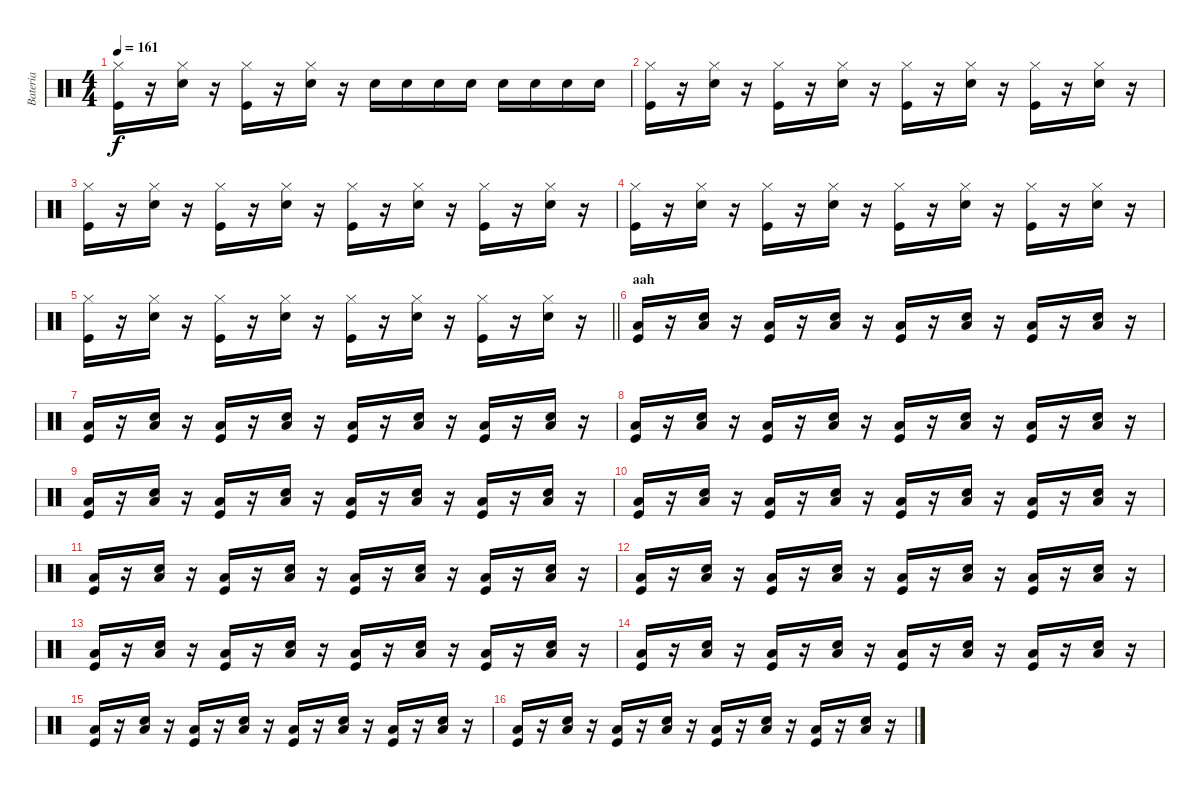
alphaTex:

\track ("Bateria" "Bateria") {instrument percussion}
\staff {score}
\articulation defaults
\ts (4 4)
\tempo 161
\clef neutral
\ks c
("Hi-Hat (closed)" "Kick (hit)").16{dy f} r.16 ("Hi-Hat (closed)" "Snare (hit) 2").16 r.16 ("Hi-Hat (closed)" "Kick (hit)").16 r.16 ("Hi-Hat (closed)" "Snare (hit) 2").16 r.16 "Snare (hit) 2".16 "Snare (hit) 2".16 "Snare (hit) 2".16 "Snare (hit) 2".16 "Snare (hit) 2".16 "Snare (hit) 2".16 "Snare (hit) 2".16 "Snare (hit) 2".16 |
("Hi-Hat (closed)" "Kick (hit)").16 r.16 ("Hi-Hat (closed)" "Snare (hit) 2").16 r.16 ("Hi-Hat (closed)" "Kick (hit)").16 r.16 ("Hi-Hat (closed)" "Snare (hit) 2").16 r.16 ("Hi-Hat (closed)" "Kick (hit)").16 r.16 ("Hi-Hat (closed)" "Snare (hit) 2").16 r.16 ("Hi-Hat (closed)" "Kick (hit)").16 r.16 ("Hi-Hat (closed)" "Snare (hit) 2").16 r.16 |
("Hi-Hat (closed)" "Kick (hit)").16 r.16 ("Hi-Hat (closed)" "Snare (hit) 2").16 r.16 ("Hi-Hat (closed)" "Kick (hit)").16 r.16 ("Hi-Hat (closed)" "Snare (hit) 2").16 r.16 ("Hi-Hat (closed)" "Kick (hit)").16 r.16 ("Hi-Hat (closed)" "Snare (hit) 2").16 r.16 ("Hi-Hat (closed)" "Kick (hit)").16 r.16 ("Hi-Hat (closed)" "Snare (hit) 2").16 r.16 |
("Hi-Hat (closed)" "Kick (hit)").16 r.16 ("Hi-Hat (closed)" "Snare (hit) 2").16 r.16 ("Hi-Hat (closed)" "Kick (hit)").16 r.16 ("Hi-Hat (closed)" "Snare (hit) 2").16 r.16 ("Hi-Hat (closed)" "Kick (hit)").16 r.16 ("Hi-Hat (closed)" "Snare (hit) 2").16 r.16 ("Hi-Hat (closed)" "Kick (hit)").16 r.16 ("Hi-Hat (closed)" "Snare (hit) 2").16 r.16 |
\barLineRight lightlight
("Hi-Hat (closed)" "Kick (hit)").16 r.16 ("Hi-Hat (closed)" "Snare (hit) 2").16 r.16 ("Hi-Hat (closed)" "Kick (hit)").16 r.16 ("Hi-Hat (closed)" "Snare (hit) 2").16 r.16 ("Hi-Hat (closed)" "Kick (hit)").16 r.16 ("Hi-Hat (closed)" "Snare (hit) 2").16 r.16 ("Hi-Hat (closed)" "Kick (hit)").16 r.16 ("Hi-Hat (closed)" "Snare (hit) 2").16 r.16 |
\section ("" "aah")
("Low Floor Tom (hit)" "Kick (hit)").16 r.16 ("Low Floor Tom (hit)" "Snare (hit) 2").16 r.16 ("Low Floor Tom (hit)" "Kick (hit)").16 r.16 ("Low Floor Tom (hit)" "Snare (hit) 2").16 r.16 ("Low Floor Tom (hit)" "Kick (hit)").16 r.16 ("Low Floor Tom (hit)" "Snare (hit) 2").16 r.16 ("Low Floor Tom (hit)" "Kick (hit)").16 r.16 ("Low Floor Tom (hit)" "Snare (hit) 2").16 r.16 |
("Low Floor Tom (hit)" "Kick (hit)").16 r.16 ("Low Floor Tom (hit)" "Snare (hit) 2").16 r.16 ("Low Floor Tom (hit)" "Kick (hit)").16 r.16 ("Low Floor Tom (hit)" "Snare (hit) 2").16 r.16 ("Low Floor Tom (hit)" "Kick (hit)").16 r.16 ("Low Floor Tom (hit)" "Snare (hit) 2").16 r.16 ("Low Floor Tom (hit)" "Kick (hit)").16 r.16 ("Low Floor Tom (hit)" "Snare (hit) 2").16 r.16 |
("Low Floor Tom (hit)" "Kick (hit)").16 r.16 ("Low Floor Tom (hit)" "Snare (hit) 2").16 r.16 ("Low Floor Tom (hit)" "Kick (hit)").16 r.16 ("Low Floor Tom (hit)" "Snare (hit) 2").16 r.16 ("Low Floor Tom (hit)" "Kick (hit)").16 r.16 ("Low Floor Tom (hit)" "Snare (hit) 2").16 r.16 ("Low Floor Tom (hit)" "Kick (hit)").16 r.16 ("Low Floor Tom (hit)" "Snare (hit) 2").16 r.16 |
("Low Floor Tom (hit)" "Kick (hit)").16 r.16 ("Low Floor Tom (hit)" "Snare (hit) 2").16 r.16 ("Low Floor Tom (hit)" "Kick (hit)").16 r.16 ("Low Floor Tom (hit)" "Snare (hit) 2").16 r.16 ("Low Floor Tom (hit)" "Kick (hit)").16 r.16 ("Low Floor Tom (hit)" "Snare (hit) 2").16 r.16 ("Low Floor Tom (hit)" "Kick (hit)").16 r.16 ("Low Floor Tom (hit)" "Snare (hit) 2").16 r.16 |
("Low Floor Tom (hit)" "Kick (hit)").16 r.16 ("Low Floor Tom (hit)" "Snare (hit) 2").16 r.16 ("Low Floor Tom (hit)" "Kick (hit)").16 r.16 ("Low Floor Tom (hit)" "Snare (hit) 2").16 r.16 ("Low Floor Tom (hit)" "Kick (hit)").16 r.16 ("Low Floor Tom (hit)" "Snare (hit) 2").16 r.16 ("Low Floor Tom (hit)" "Kick (hit)").16 r.16 ("Low Floor Tom (hit)" "Snare (hit) 2").16 r.16 |
("Low Floor Tom (hit)" "Kick (hit)").16 r.16 ("Low Floor Tom (hit)" "Snare (hit) 2").16 r.16 ("Low Floor Tom (hit)" "Kick (hit)").16 r.16 ("Low Floor Tom (hit)" "Snare (hit) 2").16 r.16 ("Low Floor Tom (hit)" "Kick (hit)").16 r.16 ("Low Floor Tom (hit)" "Snare (hit) 2").16 r.16 ("Low Floor Tom (hit)" "Kick (hit)").16 r.16 ("Low Floor Tom (hit)" "Snare (hit) 2").16 r.16 |
("Low Floor Tom (hit)" "Kick (hit)").16 r.16 ("Low Floor Tom (hit)" "Snare (hit) 2").16 r.16 ("Low Floor Tom (hit)" "Kick (hit)").16 r.16 ("Low Floor Tom (hit)" "Snare (hit) 2").16 r.16 ("Low Floor Tom (hit)" "Kick (hit)").16 r.16 ("Low Floor Tom (hit)" "Snare (hit) 2").16 r.16 ("Low Floor Tom (hit)" "Kick (hit)").16 r.16 ("Low Floor Tom (hit)" "Snare (hit) 2").16 r.16 |
("Low Floor Tom (hit)" "Kick (hit)").16 r.16 ("Low Floor Tom (hit)" "Snare (hit) 2").16 r.16 ("Low Floor Tom (hit)" "Kick (hit)").16 r.16 ("Low Floor Tom (hit)" "Snare (hit) 2").16 r.16 ("Low Floor Tom (hit)" "Kick (hit)").16 r.16 ("Low Floor Tom (hit)" "Snare (hit) 2").16 r.16 ("Low Floor Tom (hit)" "Kick (hit)").16 r.16 ("Low Floor Tom (hit)" "Snare (hit) 2").16 r.16 |
("Low Floor Tom (hit)" "Kick (hit)").16 r.16 ("Low Floor Tom (hit)" "Snare (hit) 2").16 r.16 ("Low Floor Tom (hit)" "Kick (hit)").16 r.16 ("Low Floor Tom (hit)" "Snare (hit) 2").16 r.16 ("Low Floor Tom (hit)" "Kick (hit)").16 r.16 ("Low Floor Tom (hit)" "Snare (hit) 2").16 r.16 ("Low Floor Tom (hit)" "Kick (hit)").16 r.16 ("Low Floor Tom (hit)" "Snare (hit) 2").16 r.16 |
("Low Floor Tom (hit)" "Kick (hit)").16 r.16 ("Low Floor Tom (hit)" "Snare (hit) 2").16 r.16 ("Low Floor Tom (hit)" "Kick (hit)").16 r.16 ("Low Floor Tom (hit)" "Snare (hit) 2").16 r.16 ("Low Floor Tom (hit)" "Kick (hit)").16 r.16 ("Low Floor Tom (hit)" "Snare (hit) 2").16 r.16 ("Low Floor Tom (hit)" "Kick (hit)").16 r.16 ("Low Floor Tom (hit)" "Snare (hit) 2").16 r.16 |
("Low Floor Tom (hit)" "Kick (hit)").16 r.16 ("Low Floor Tom (hit)" "Snare (hit) 2").16 r.16 ("Low Floor Tom (hit)" "Kick (hit)").16 r.16 ("Low Floor Tom (hit)" "Snare (hit) 2").16 r.16 ("Low Floor Tom (hit)" "Kick (hit)").16 r.16 ("Low Floor Tom (hit)" "Snare (hit) 2").16 r.16 ("Low Floor Tom (hit)" "Kick (hit)").16 r.16 ("Low Floor Tom (hit)" "Snare (hit) 2").16 r.16
